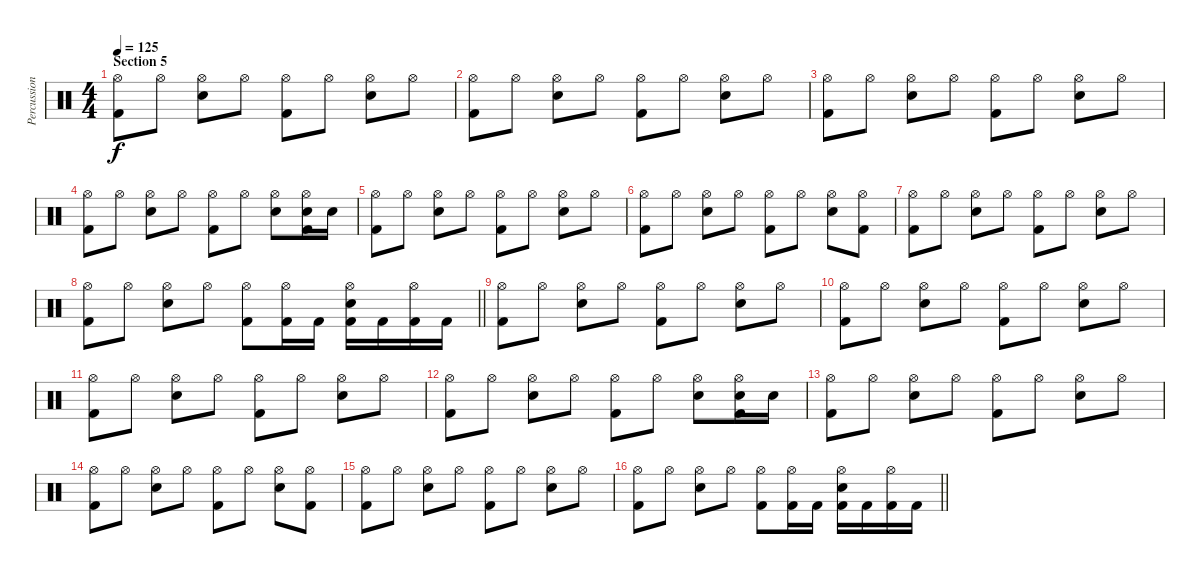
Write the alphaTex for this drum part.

\track ("Percussions" "Percussion") {instrument percussion}
\staff {score}
\articulation defaults
\ts (4 4)
\section ("" "Section 5")
\tempo 125
\clef neutral
\ks c
("Hi-Hat (open)" "Kick (hit) 2").8{dy f} "Hi-Hat (open)".8 ("Hi-Hat (open)" "Electric Snare (hit)").8 "Hi-Hat (open)".8 ("Hi-Hat (open)" "Kick (hit) 2").8 "Hi-Hat (open)".8 ("Hi-Hat (open)" "Electric Snare (hit)").8 "Hi-Hat (open)".8 |
("Hi-Hat (open)" "Kick (hit) 2").8 "Hi-Hat (open)".8 ("Hi-Hat (open)" "Electric Snare (hit)").8 "Hi-Hat (open)".8 ("Hi-Hat (open)" "Kick (hit) 2").8 "Hi-Hat (open)".8 ("Hi-Hat (open)" "Electric Snare (hit)").8 "Hi-Hat (open)".8 |
("Hi-Hat (open)" "Kick (hit) 2").8 "Hi-Hat (open)".8 ("Hi-Hat (open)" "Electric Snare (hit)").8 "Hi-Hat (open)".8 ("Hi-Hat (open)" "Kick (hit) 2").8 "Hi-Hat (open)".8 ("Hi-Hat (open)" "Electric Snare (hit)").8 "Hi-Hat (open)".8 |
("Hi-Hat (open)" "Kick (hit) 2").8 "Hi-Hat (open)".8 ("Hi-Hat (open)" "Electric Snare (hit)").8 "Hi-Hat (open)".8 ("Hi-Hat (open)" "Kick (hit) 2").8 "Hi-Hat (open)".8 ("Hi-Hat (open)" "Electric Snare (hit)").8 ("Hi-Hat (open)" "Electric Snare (hit)" "Kick (hit) 2").16 "Electric Snare (hit)".16 |
("Hi-Hat (open)" "Kick (hit) 2").8 "Hi-Hat (open)".8 ("Hi-Hat (open)" "Electric Snare (hit)").8 "Hi-Hat (open)".8 ("Hi-Hat (open)" "Kick (hit) 2").8 "Hi-Hat (open)".8 ("Hi-Hat (open)" "Electric Snare (hit)").8 "Hi-Hat (open)".8 |
("Hi-Hat (open)" "Kick (hit) 2").8 "Hi-Hat (open)".8 ("Hi-Hat (open)" "Electric Snare (hit)").8 "Hi-Hat (open)".8 ("Hi-Hat (open)" "Kick (hit) 2").8 "Hi-Hat (open)".8 ("Hi-Hat (open)" "Electric Snare (hit)").8 ("Hi-Hat (open)" "Kick (hit) 2").8 |
("Hi-Hat (open)" "Kick (hit) 2").8 "Hi-Hat (open)".8 ("Hi-Hat (open)" "Electric Snare (hit)").8 "Hi-Hat (open)".8 ("Hi-Hat (open)" "Kick (hit) 2").8 "Hi-Hat (open)".8 ("Hi-Hat (open)" "Electric Snare (hit)").8 "Hi-Hat (open)".8 |
\barLineRight lightlight
("Hi-Hat (open)" "Kick (hit) 2").8 "Hi-Hat (open)".8 ("Hi-Hat (open)" "Electric Snare (hit)").8 "Hi-Hat (open)".8 ("Hi-Hat (open)" "Kick (hit) 2").8 ("Hi-Hat (open)" "Kick (hit) 2").16 "Kick (hit) 2".16 ("Hi-Hat (open)" "Electric Snare (hit)" "Kick (hit) 2").16 "Kick (hit) 2".16 ("Hi-Hat (open)" "Kick (hit) 2").16 "Kick (hit) 2".16 |
("Hi-Hat (open)" "Kick (hit) 2").8 "Hi-Hat (open)".8 ("Hi-Hat (open)" "Electric Snare (hit)").8 "Hi-Hat (open)".8 ("Hi-Hat (open)" "Kick (hit) 2").8 "Hi-Hat (open)".8 ("Hi-Hat (open)" "Electric Snare (hit)").8 "Hi-Hat (open)".8 |
("Hi-Hat (open)" "Kick (hit) 2").8 "Hi-Hat (open)".8 ("Hi-Hat (open)" "Electric Snare (hit)").8 "Hi-Hat (open)".8 ("Hi-Hat (open)" "Kick (hit) 2").8 "Hi-Hat (open)".8 ("Hi-Hat (open)" "Electric Snare (hit)").8 "Hi-Hat (open)".8 |
("Hi-Hat (open)" "Kick (hit) 2").8 "Hi-Hat (open)".8 ("Hi-Hat (open)" "Electric Snare (hit)").8 "Hi-Hat (open)".8 ("Hi-Hat (open)" "Kick (hit) 2").8 "Hi-Hat (open)".8 ("Hi-Hat (open)" "Electric Snare (hit)").8 "Hi-Hat (open)".8 |
("Hi-Hat (open)" "Kick (hit) 2").8 "Hi-Hat (open)".8 ("Hi-Hat (open)" "Electric Snare (hit)").8 "Hi-Hat (open)".8 ("Hi-Hat (open)" "Kick (hit) 2").8 "Hi-Hat (open)".8 ("Hi-Hat (open)" "Electric Snare (hit)").8 ("Hi-Hat (open)" "Electric Snare (hit)" "Kick (hit) 2").16 "Electric Snare (hit)".16 |
("Hi-Hat (open)" "Kick (hit) 2").8 "Hi-Hat (open)".8 ("Hi-Hat (open)" "Electric Snare (hit)").8 "Hi-Hat (open)".8 ("Hi-Hat (open)" "Kick (hit) 2").8 "Hi-Hat (open)".8 ("Hi-Hat (open)" "Electric Snare (hit)").8 "Hi-Hat (open)".8 |
("Hi-Hat (open)" "Kick (hit) 2").8 "Hi-Hat (open)".8 ("Hi-Hat (open)" "Electric Snare (hit)").8 "Hi-Hat (open)".8 ("Hi-Hat (open)" "Kick (hit) 2").8 "Hi-Hat (open)".8 ("Hi-Hat (open)" "Electric Snare (hit)").8 ("Hi-Hat (open)" "Kick (hit) 2").8 |
("Hi-Hat (open)" "Kick (hit) 2").8 "Hi-Hat (open)".8 ("Hi-Hat (open)" "Electric Snare (hit)").8 "Hi-Hat (open)".8 ("Hi-Hat (open)" "Kick (hit) 2").8 "Hi-Hat (open)".8 ("Hi-Hat (open)" "Electric Snare (hit)").8 "Hi-Hat (open)".8 |
\barLineRight lightlight
("Hi-Hat (open)" "Kick (hit) 2").8 "Hi-Hat (open)".8 ("Hi-Hat (open)" "Electric Snare (hit)").8 "Hi-Hat (open)".8 ("Hi-Hat (open)" "Kick (hit) 2").8 ("Hi-Hat (open)" "Kick (hit) 2").16 "Kick (hit) 2".16 ("Hi-Hat (open)" "Electric Snare (hit)" "Kick (hit) 2").16 "Kick (hit) 2".16 ("Hi-Hat (open)" "Kick (hit) 2").16 "Kick (hit) 2".16
